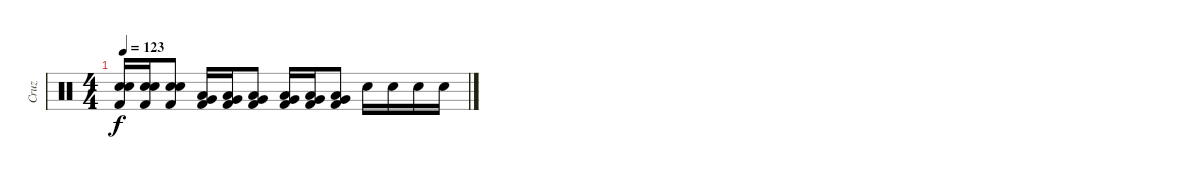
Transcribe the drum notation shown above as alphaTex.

\track ("Cruz" "Cruz") {instrument percussion}
\staff {score}
\articulation defaults
\ts (4 4)
\tempo 123
\clef neutral
\ks c
("Snare (hit) 2" "Snare (hit) 2" "Kick (hit) 2").16{dy f} ("Snare (hit) 2" "Snare (hit) 2" "Kick (hit) 2").16 ("Snare (hit) 2" "Snare (hit) 2" "Kick (hit) 2").8 ("Low Tom (hit)" "Very Low Tom (hit)" "Kick (hit) 2").16 ("Low Tom (hit)" "Very Low Tom (hit)" "Kick (hit) 2").16 ("Low Tom (hit)" "Very Low Tom (hit)" "Kick (hit) 2").8 ("Very Low Tom (hit)" "Low Floor Tom (hit)" "Kick (hit) 2").16 ("Very Low Tom (hit)" "Low Floor Tom (hit)" "Kick (hit) 2").16 ("Very Low Tom (hit)" "Low Floor Tom (hit)" "Kick (hit) 2").8 "Snare (hit) 2".16 "Snare (hit) 2".16 "Snare (hit) 2".16 "Snare (hit) 2".16
